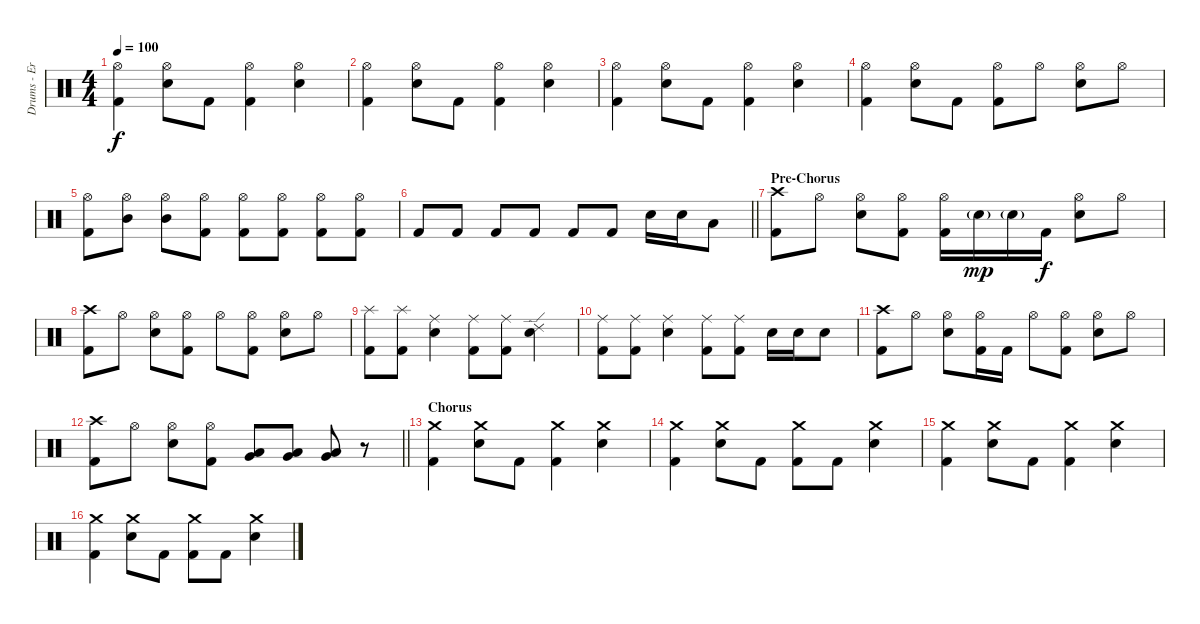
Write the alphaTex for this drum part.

\track ("Drums - Eric Young" "Drums - Er") {instrument percussion}
\staff {score}
\articulation defaults
\ts (4 4)
\tempo 100
\clef neutral
\ks c
("Hi-Hat (open)" "Kick (hit) 2").4{dy f} ("Hi-Hat (open)" "Electric Snare (hit)").8 "Kick (hit) 2".8 ("Hi-Hat (open)" "Kick (hit) 2").4 ("Hi-Hat (open)" "Electric Snare (hit)").4 |
("Hi-Hat (open)" "Kick (hit) 2").4 ("Hi-Hat (open)" "Electric Snare (hit)").8 "Kick (hit) 2".8 ("Hi-Hat (open)" "Kick (hit) 2").4 ("Hi-Hat (open)" "Electric Snare (hit)").4 |
("Hi-Hat (open)" "Kick (hit) 2").4 ("Hi-Hat (open)" "Electric Snare (hit)").8 "Kick (hit) 2".8 ("Hi-Hat (open)" "Kick (hit) 2").4 ("Hi-Hat (open)" "Electric Snare (hit)").4 |
("Hi-Hat (open)" "Kick (hit) 2").4 ("Hi-Hat (open)" "Electric Snare (hit)").8 "Kick (hit) 2".8 ("Hi-Hat (open)" "Kick (hit) 2").8 "Hi-Hat (open)".8 ("Hi-Hat (open)" "Electric Snare (hit)").8 "Hi-Hat (open)".8 |
("Hi-Hat (open)" "Kick (hit) 2").8 ("Hi-Hat (open)" "Mid Tom (hit)").8 ("Hi-Hat (open)" "Mid Tom (hit)").8 ("Hi-Hat (open)" "Kick (hit) 2").8 ("Hi-Hat (open)" "Kick (hit) 2").8 ("Hi-Hat (open)" "Kick (hit) 2").8 ("Hi-Hat (open)" "Kick (hit) 2").8 ("Hi-Hat (open)" "Kick (hit) 2").8 |
\barLineRight lightlight "Kick (hit) 2".8 "Kick (hit) 2".8 "Kick (hit) 2".8 "Kick (hit) 2".8 "Kick (hit) 2".8 "Kick (hit) 2".8 "Electric Snare (hit)".16 "Electric Snare (hit)".16 "Low Tom (hit)".8
|
\section ("" "Pre-Chorus")
("Crash high (hit)" "Kick (hit) 2").8 "Hi-Hat (open)".8 ("Hi-Hat (open)" "Electric Snare (hit)").8 ("Hi-Hat (open)" "Kick (hit) 2").8 ("Hi-Hat (open)" "Kick (hit) 2").16 "Electric Snare (hit)"{g}.16{dy mp} "Electric Snare (hit)"{g}.16 "Kick (hit) 2".16{dy f} ("Hi-Hat (open)" "Electric Snare (hit)").8 "Hi-Hat (open)".8 |
("Crash high (hit)" "Kick (hit) 2").8 "Hi-Hat (open)".8 ("Hi-Hat (open)" "Electric Snare (hit)").8 ("Hi-Hat (open)" "Kick (hit) 2").8 "Hi-Hat (open)".8 ("Hi-Hat (open)" "Kick (hit) 2").8 ("Hi-Hat (open)" "Electric Snare (hit)").8 "Hi-Hat (open)".8 |
("Splash (hit)" "Kick (hit) 2").8 ("Splash (hit)" "Kick (hit) 2").8 ("Ride (middle)" "Electric Snare (hit)").4 ("Ride (middle)" "Kick (hit) 2").8 ("Ride (middle)" "Kick (hit) 2").8 ("Ride (edge) 2" "Electric Snare (hit)").4 |
("Ride (middle)" "Kick (hit) 2").8 ("Ride (middle)" "Kick (hit) 2").8 ("Ride (middle)" "Electric Snare (hit)").4 ("Ride (middle)" "Kick (hit) 2").8 ("Ride (middle)" "Kick (hit) 2").8 "Electric Snare (hit)".16 "Electric Snare (hit)".16 "Electric Snare (hit)".8 |
("Crash high (hit)" "Kick (hit) 2").8 "Hi-Hat (open)".8 ("Hi-Hat (open)" "Electric Snare (hit)").8 ("Hi-Hat (open)" "Kick (hit) 2").16 "Kick (hit) 2".16 "Hi-Hat (open)".8 ("Hi-Hat (open)" "Kick (hit) 2").8 ("Hi-Hat (open)" "Electric Snare (hit)").8 "Hi-Hat (open)".8 |
\barLineRight lightlight
("Crash high (hit)" "Kick (hit) 2").8 "Hi-Hat (open)".8 ("Hi-Hat (open)" "Electric Snare (hit)").8 ("Hi-Hat (open)" "Kick (hit) 2").8 ("Low Tom (hit)" "Very Low Tom (hit)").8 ("Low Tom (hit)" "Very Low Tom (hit)").8 ("Low Tom (hit)" "Very Low Tom (hit)").8 r.8 |
\section ("" "Chorus")
("Crash medium (hit)" "Kick (hit) 2").4 ("Crash medium (hit)" "Electric Snare (hit)").8 "Kick (hit) 2".8 ("Crash medium (hit)" "Kick (hit) 2").4 ("Crash medium (hit)" "Electric Snare (hit)").4 |
("Crash medium (hit)" "Kick (hit) 2").4 ("Crash medium (hit)" "Electric Snare (hit)").8 "Kick (hit) 2".8 ("Crash medium (hit)" "Kick (hit) 2").8 "Kick (hit) 2".8 ("Crash medium (hit)" "Electric Snare (hit)").4 |
("Crash medium (hit)" "Kick (hit) 2").4 ("Crash medium (hit)" "Electric Snare (hit)").8 "Kick (hit) 2".8 ("Crash medium (hit)" "Kick (hit) 2").4 ("Crash medium (hit)" "Electric Snare (hit)").4 |
("Crash medium (hit)" "Kick (hit) 2").4 ("Crash medium (hit)" "Electric Snare (hit)").8 "Kick (hit) 2".8 ("Crash medium (hit)" "Kick (hit) 2").8 "Kick (hit) 2".8 ("Crash medium (hit)" "Electric Snare (hit)").4
